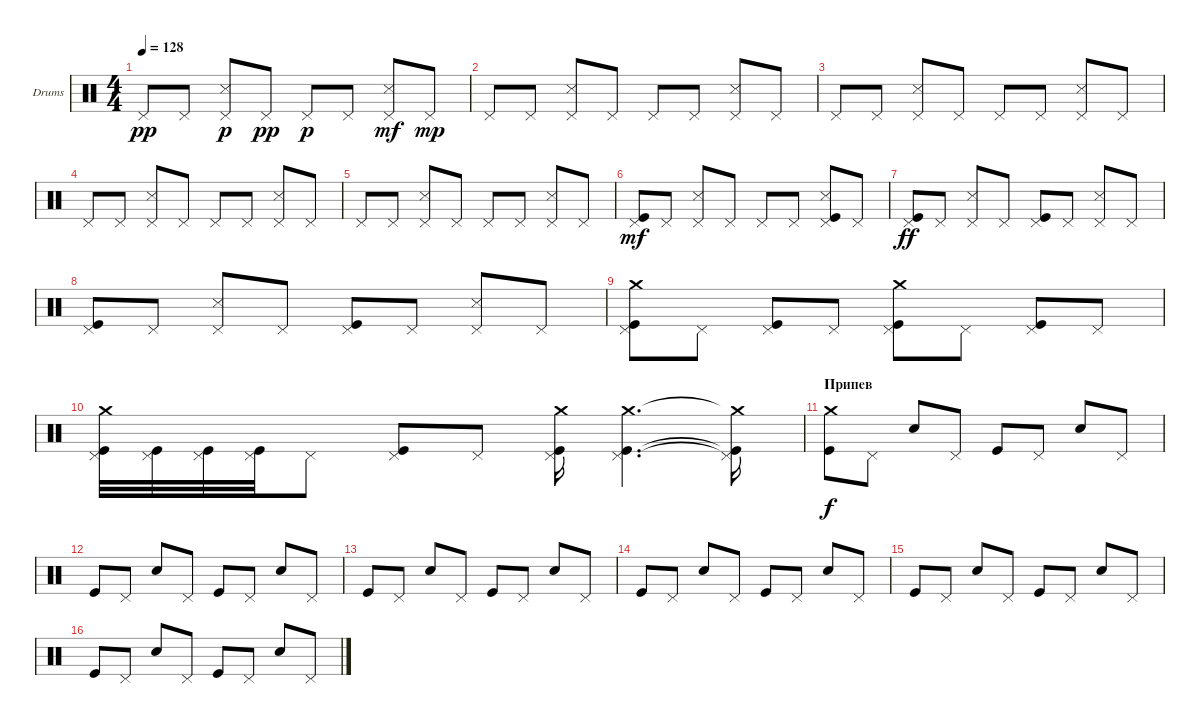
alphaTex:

\defaultSystemsLayout 4
\bracketExtendMode groupsimilarinstruments
\firstSystemTrackNameOrientation horizontal
\otherSystemsTrackNameOrientation horizontal
\track ("Е. Кулаков" "Drums") {instrument percussion}
\staff {score}
\articulation defaults
\ts (4 4)
\tempo 128
\clef neutral
\ks c "Pedal Hi-Hat (hit)".8{dy pp} "Pedal Hi-Hat (hit)".8
("Snare (side stick) 3" "Pedal Hi-Hat (hit)").8{dy p} "Pedal Hi-Hat (hit)".8{dy pp} "Pedal Hi-Hat (hit)".8{dy p} "Pedal Hi-Hat (hit)".8 ("Snare (side stick) 3" "Pedal Hi-Hat (hit)").8{dy mf} "Pedal Hi-Hat (hit)".8{dy mp} |
"Pedal Hi-Hat (hit)".8 "Pedal Hi-Hat (hit)".8 ("Snare (side stick) 3" "Pedal Hi-Hat (hit)").8 "Pedal Hi-Hat (hit)".8 "Pedal Hi-Hat (hit)".8 "Pedal Hi-Hat (hit)".8 ("Snare (side stick) 3" "Pedal Hi-Hat (hit)").8 "Pedal Hi-Hat (hit)".8 |
"Pedal Hi-Hat (hit)".8 "Pedal Hi-Hat (hit)".8 ("Snare (side stick) 3" "Pedal Hi-Hat (hit)").8 "Pedal Hi-Hat (hit)".8 "Pedal Hi-Hat (hit)".8 "Pedal Hi-Hat (hit)".8 ("Snare (side stick) 3" "Pedal Hi-Hat (hit)").8 "Pedal Hi-Hat (hit)".8 |
"Pedal Hi-Hat (hit)".8 "Pedal Hi-Hat (hit)".8 ("Snare (side stick) 3" "Pedal Hi-Hat (hit)").8 "Pedal Hi-Hat (hit)".8 "Pedal Hi-Hat (hit)".8 "Pedal Hi-Hat (hit)".8 ("Snare (side stick) 3" "Pedal Hi-Hat (hit)").8 "Pedal Hi-Hat (hit)".8 |
"Pedal Hi-Hat (hit)".8 "Pedal Hi-Hat (hit)".8 ("Snare (side stick) 3" "Pedal Hi-Hat (hit)").8 "Pedal Hi-Hat (hit)".8 "Pedal Hi-Hat (hit)".8 "Pedal Hi-Hat (hit)".8 ("Snare (side stick) 3" "Pedal Hi-Hat (hit)").8 "Pedal Hi-Hat (hit)".8 |
("Pedal Hi-Hat (hit)" "Kick (hit)").8{dy mf} "Pedal Hi-Hat (hit)".8 ("Snare (side stick) 3" "Pedal Hi-Hat (hit)").8 "Pedal Hi-Hat (hit)".8 "Pedal Hi-Hat (hit)".8 "Pedal Hi-Hat (hit)".8 ("Snare (side stick) 3" "Pedal Hi-Hat (hit)" "Kick (hit)").8 "Pedal Hi-Hat (hit)".8 |
("Pedal Hi-Hat (hit)" "Kick (hit)").8{dy ff} "Pedal Hi-Hat (hit)".8 ("Snare (side stick) 3" "Pedal Hi-Hat (hit)").8 "Pedal Hi-Hat (hit)".8 ("Pedal Hi-Hat (hit)" "Kick (hit)").8 "Pedal Hi-Hat (hit)".8 ("Snare (side stick) 3" "Pedal Hi-Hat (hit)").8 "Pedal Hi-Hat (hit)".8 |
("Pedal Hi-Hat (hit)" "Kick (hit)").8 "Pedal Hi-Hat (hit)".8 ("Snare (side stick) 3" "Pedal Hi-Hat (hit)").8 "Pedal Hi-Hat (hit)".8 ("Pedal Hi-Hat (hit)" "Kick (hit)").8 "Pedal Hi-Hat (hit)".8 ("Snare (side stick) 3" "Pedal Hi-Hat (hit)").8 "Pedal Hi-Hat (hit)".8 |
("Pedal Hi-Hat (hit)" "Kick (hit)" "Crash medium (hit)").8 "Pedal Hi-Hat (hit)".8 ("Pedal Hi-Hat (hit)" "Kick (hit)").8 "Pedal Hi-Hat (hit)".8 ("Pedal Hi-Hat (hit)" "Kick (hit)" "Crash medium (hit)").8 "Pedal Hi-Hat (hit)".8 ("Pedal Hi-Hat (hit)" "Kick (hit)").8 "Pedal Hi-Hat (hit)".8 |
("Pedal Hi-Hat (hit)" "Kick (hit)" "Crash medium (hit)").32 ("Pedal Hi-Hat (hit)" "Kick (hit)").32 ("Pedal Hi-Hat (hit)" "Kick (hit)").32 ("Pedal Hi-Hat (hit)" "Kick (hit)").32 "Pedal Hi-Hat (hit)".8 ("Pedal Hi-Hat (hit)" "Kick (hit)").8 "Pedal Hi-Hat (hit)".8 ("Pedal Hi-Hat (hit)" "Kick (hit)" "Crash medium (hit)").16 ("Pedal Hi-Hat (hit)" "Kick (hit)" "Crash medium (hit)").4{d} ("Pedal Hi-Hat (hit)"{t} "Kick (hit)"{t} "Crash medium (hit)"{t}).16 |
\section ("" "Припев ")
("Kick (hit)" "Crash medium (hit)").8{dy f} "Pedal Hi-Hat (hit)".8 "Snare (hit) 2".8 "Pedal Hi-Hat (hit)".8 "Kick (hit)".8 "Pedal Hi-Hat (hit)".8 "Snare (hit) 2".8 "Pedal Hi-Hat (hit)".8 |
"Kick (hit)".8 "Pedal Hi-Hat (hit)".8 "Snare (hit) 2".8 "Pedal Hi-Hat (hit)".8 "Kick (hit)".8 "Pedal Hi-Hat (hit)".8 "Snare (hit) 2".8 "Pedal Hi-Hat (hit)".8 |
"Kick (hit)".8 "Pedal Hi-Hat (hit)".8 "Snare (hit) 2".8 "Pedal Hi-Hat (hit)".8 "Kick (hit)".8 "Pedal Hi-Hat (hit)".8 "Snare (hit) 2".8 "Pedal Hi-Hat (hit)".8 |
"Kick (hit)".8 "Pedal Hi-Hat (hit)".8 "Snare (hit) 2".8 "Pedal Hi-Hat (hit)".8 "Kick (hit)".8 "Pedal Hi-Hat (hit)".8 "Snare (hit) 2".8 "Pedal Hi-Hat (hit)".8 |
"Kick (hit)".8 "Pedal Hi-Hat (hit)".8 "Snare (hit) 2".8 "Pedal Hi-Hat (hit)".8 "Kick (hit)".8 "Pedal Hi-Hat (hit)".8 "Snare (hit) 2".8 "Pedal Hi-Hat (hit)".8 |
"Kick (hit)".8 "Pedal Hi-Hat (hit)".8 "Snare (hit) 2".8 "Pedal Hi-Hat (hit)".8 "Kick (hit)".8 "Pedal Hi-Hat (hit)".8 "Snare (hit) 2".8 "Pedal Hi-Hat (hit)".8
